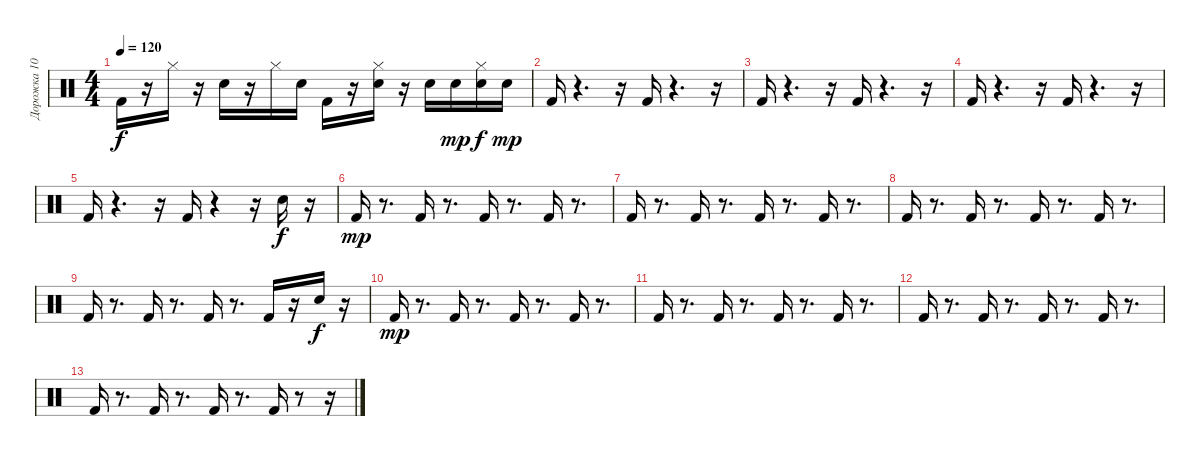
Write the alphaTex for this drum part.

\track ("Дорожка 10" "Дорожка 10") {instrument percussion}
\staff {score}
\articulation defaults
\ts (4 4)
\tempo 120
\clef neutral
\ks c "Kick (hit) 2".16{dy f}
r.16 "Hi-Hat (closed)".16 r.16 "Snare (hit) 2".16 r.16 "Hi-Hat (closed)".16 "Snare (hit) 2".16 "Kick (hit) 2".16 r.16 ("Snare (hit) 2" "Hi-Hat (closed)").16 r.16 "Snare (hit) 2".16 "Snare (hit) 2".16{dy mp} ("Snare (hit) 2" "Hi-Hat (closed)").16{dy f} "Snare (hit) 2".16{dy mp} |
"Kick (hit) 2".16 r.4{d} r.16 "Kick (hit) 2".16 r.4{d} r.16 |
"Kick (hit) 2".16 r.4{d} r.16 "Kick (hit) 2".16 r.4{d} r.16 |
"Kick (hit) 2".16 r.4{d} r.16 "Kick (hit) 2".16 r.4{d} r.16 |
"Kick (hit) 2".16 r.4{d} r.16 "Kick (hit) 2".16 r.4 r.16 "Snare (hit) 2".16{dy f} r.16 |
"Kick (hit) 2".16{dy mp} r.8{d} "Kick (hit) 2".16 r.8{d} "Kick (hit) 2".16 r.8{d} "Kick (hit) 2".16 r.8{d} |
"Kick (hit) 2".16 r.8{d} "Kick (hit) 2".16 r.8{d} "Kick (hit) 2".16 r.8{d} "Kick (hit) 2".16 r.8{d} |
"Kick (hit) 2".16 r.8{d} "Kick (hit) 2".16 r.8{d} "Kick (hit) 2".16 r.8{d} "Kick (hit) 2".16 r.8{d} |
"Kick (hit) 2".16 r.8{d} "Kick (hit) 2".16 r.8{d} "Kick (hit) 2".16 r.8{d} "Kick (hit) 2".16 r.16 "Snare (hit) 2".16{dy f} r.16 |
"Kick (hit) 2".16{dy mp} r.8{d} "Kick (hit) 2".16 r.8{d} "Kick (hit) 2".16 r.8{d} "Kick (hit) 2".16 r.8{d} |
"Kick (hit) 2".16 r.8{d} "Kick (hit) 2".16 r.8{d} "Kick (hit) 2".16 r.8{d} "Kick (hit) 2".16 r.8{d} |
"Kick (hit) 2".16 r.8{d} "Kick (hit) 2".16 r.8{d} "Kick (hit) 2".16 r.8{d} "Kick (hit) 2".16 r.8{d} |
"Kick (hit) 2".16 r.8{d} "Kick (hit) 2".16 r.8{d} "Kick (hit) 2".16 r.8{d} "Kick (hit) 2".16 r.8 r.16
